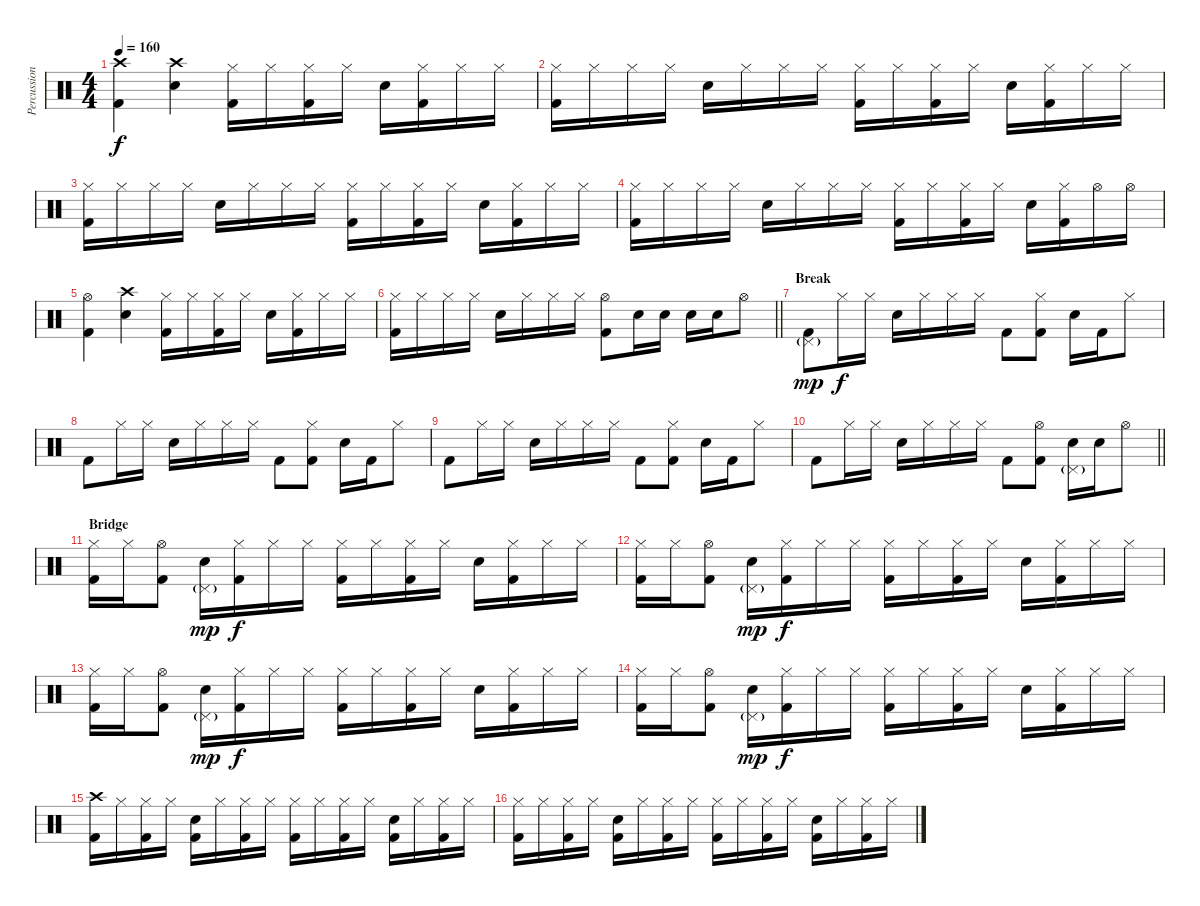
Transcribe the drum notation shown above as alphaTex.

\track ("Percussion" "Percussion") {instrument percussion}
\staff {score}
\articulation defaults
\ts (4 4)
\tempo 160
\clef neutral
\ks c
("Crash high (hit)" "Kick (hit) 2").4{dy f} ("Crash high (hit)" "Electric Snare (hit)").4 ("Hi-Hat (closed)" "Kick (hit) 2").16 "Hi-Hat (closed)".16 ("Hi-Hat (closed)" "Kick (hit) 2").16 "Hi-Hat (closed)".16 "Electric Snare (hit)".16 ("Hi-Hat (closed)" "Kick (hit) 2").16 "Hi-Hat (closed)".16 "Hi-Hat (closed)".16 |
("Hi-Hat (closed)" "Kick (hit) 2").16 "Hi-Hat (closed)".16 "Hi-Hat (closed)".16 "Hi-Hat (closed)".16 "Electric Snare (hit)".16 "Hi-Hat (closed)".16 "Hi-Hat (closed)".16 "Hi-Hat (closed)".16 ("Hi-Hat (closed)" "Kick (hit) 2").16 "Hi-Hat (closed)".16 ("Hi-Hat (closed)" "Kick (hit) 2").16 "Hi-Hat (closed)".16 "Electric Snare (hit)".16 ("Hi-Hat (closed)" "Kick (hit) 2").16 "Hi-Hat (closed)".16 "Hi-Hat (closed)".16 |
("Hi-Hat (closed)" "Kick (hit) 2").16 "Hi-Hat (closed)".16 "Hi-Hat (closed)".16 "Hi-Hat (closed)".16 "Electric Snare (hit)".16 "Hi-Hat (closed)".16 "Hi-Hat (closed)".16 "Hi-Hat (closed)".16 ("Hi-Hat (closed)" "Kick (hit) 2").16 "Hi-Hat (closed)".16 ("Hi-Hat (closed)" "Kick (hit) 2").16 "Hi-Hat (closed)".16 "Electric Snare (hit)".16 ("Hi-Hat (closed)" "Kick (hit) 2").16 "Hi-Hat (closed)".16 "Hi-Hat (closed)".16 |
("Hi-Hat (closed)" "Kick (hit) 2").16 "Hi-Hat (closed)".16 "Hi-Hat (closed)".16 "Hi-Hat (closed)".16 "Electric Snare (hit)".16 "Hi-Hat (closed)".16 "Hi-Hat (closed)".16 "Hi-Hat (closed)".16 ("Hi-Hat (closed)" "Kick (hit) 2").16 "Hi-Hat (closed)".16 ("Hi-Hat (closed)" "Kick (hit) 2").16 "Hi-Hat (closed)".16 "Electric Snare (hit)".16 ("Hi-Hat (closed)" "Kick (hit) 2").16 "Hi-Hat (open)".16 "Hi-Hat (open)".16 |
("Hi-Hat (open)" "Kick (hit) 2").4 ("Crash high (hit)" "Electric Snare (hit)").4 ("Hi-Hat (closed)" "Kick (hit) 2").16 "Hi-Hat (closed)".16 ("Hi-Hat (closed)" "Kick (hit) 2").16 "Hi-Hat (closed)".16 "Electric Snare (hit)".16 ("Hi-Hat (closed)" "Kick (hit) 2").16 "Hi-Hat (closed)".16 "Hi-Hat (closed)".16 |
\barLineRight lightlight
("Hi-Hat (closed)" "Kick (hit) 2").16 "Hi-Hat (closed)".16 "Hi-Hat (closed)".16 "Hi-Hat (closed)".16 "Electric Snare (hit)".16 "Hi-Hat (closed)".16 "Hi-Hat (closed)".16 "Hi-Hat (closed)".16 ("Hi-Hat (open)" "Kick (hit) 2").8 "Electric Snare (hit)".16 "Electric Snare (hit)".16 "Electric Snare (hit)".16 "Electric Snare (hit)".16 "Hi-Hat (open)".8 |
\section ("" "Break")
("Pedal Hi-Hat (hit)"{g} "Kick (hit) 2").8{dy mp} "Hi-Hat (closed)".16{dy f} "Hi-Hat (closed)".16 "Electric Snare (hit)".16 "Hi-Hat (closed)".16 "Hi-Hat (closed)".16 "Hi-Hat (closed)".16 "Kick (hit) 2".8 ("Hi-Hat (closed)" "Kick (hit) 2").8 "Electric Snare (hit)".16 "Kick (hit) 2".16 "Hi-Hat (closed)".8 |
"Kick (hit) 2".8 "Hi-Hat (closed)".16 "Hi-Hat (closed)".16 "Electric Snare (hit)".16 "Hi-Hat (closed)".16 "Hi-Hat (closed)".16 "Hi-Hat (closed)".16 "Kick (hit) 2".8 ("Hi-Hat (closed)" "Kick (hit) 2").8 "Electric Snare (hit)".16 "Kick (hit) 2".16 "Hi-Hat (closed)".8 |
"Kick (hit) 2".8 "Hi-Hat (closed)".16 "Hi-Hat (closed)".16 "Electric Snare (hit)".16 "Hi-Hat (closed)".16 "Hi-Hat (closed)".16 "Hi-Hat (closed)".16 "Kick (hit) 2".8 ("Hi-Hat (closed)" "Kick (hit) 2").8 "Electric Snare (hit)".16 "Kick (hit) 2".16 "Hi-Hat (closed)".8 |
\barLineRight lightlight "Kick (hit) 2".8 "Hi-Hat (closed)".16 "Hi-Hat (closed)".16 "Electric Snare (hit)".16 "Hi-Hat (closed)".16 "Hi-Hat (closed)".16 "Hi-Hat (closed)".16 "Kick (hit) 2".8
("Hi-Hat (open)" "Kick (hit) 2").8 ("Pedal Hi-Hat (hit)"{g} "Electric Snare (hit)").16 "Electric Snare (hit)".16 "Hi-Hat (open)".8 |
\section ("" "Bridge")
("Hi-Hat (closed)" "Kick (hit) 2").16 "Hi-Hat (closed)".16 ("Hi-Hat (open)" "Kick (hit) 2").8 ("Pedal Hi-Hat (hit)"{g} "Electric Snare (hit)").16{dy mp} ("Hi-Hat (closed)" "Kick (hit) 2").16{dy f} "Hi-Hat (closed)".16 "Hi-Hat (closed)".16 ("Hi-Hat (closed)" "Kick (hit) 2").16 "Hi-Hat (closed)".16 ("Hi-Hat (closed)" "Kick (hit) 2").16 "Hi-Hat (closed)".16 "Electric Snare (hit)".16 ("Hi-Hat (closed)" "Kick (hit) 2").16 "Hi-Hat (closed)".16 "Hi-Hat (closed)".16 |
("Hi-Hat (closed)" "Kick (hit) 2").16 "Hi-Hat (closed)".16 ("Hi-Hat (open)" "Kick (hit) 2").8 ("Pedal Hi-Hat (hit)"{g} "Electric Snare (hit)").16{dy mp} ("Hi-Hat (closed)" "Kick (hit) 2").16{dy f} "Hi-Hat (closed)".16 "Hi-Hat (closed)".16 ("Hi-Hat (closed)" "Kick (hit) 2").16 "Hi-Hat (closed)".16 ("Hi-Hat (closed)" "Kick (hit) 2").16 "Hi-Hat (closed)".16 "Electric Snare (hit)".16 ("Hi-Hat (closed)" "Kick (hit) 2").16 "Hi-Hat (closed)".16 "Hi-Hat (closed)".16 |
("Hi-Hat (closed)" "Kick (hit) 2").16 "Hi-Hat (closed)".16 ("Hi-Hat (open)" "Kick (hit) 2").8 ("Pedal Hi-Hat (hit)"{g} "Electric Snare (hit)").16{dy mp} ("Hi-Hat (closed)" "Kick (hit) 2").16{dy f} "Hi-Hat (closed)".16 "Hi-Hat (closed)".16 ("Hi-Hat (closed)" "Kick (hit) 2").16 "Hi-Hat (closed)".16 ("Hi-Hat (closed)" "Kick (hit) 2").16 "Hi-Hat (closed)".16 "Electric Snare (hit)".16 ("Hi-Hat (closed)" "Kick (hit) 2").16 "Hi-Hat (closed)".16 "Hi-Hat (closed)".16 |
("Hi-Hat (closed)" "Kick (hit) 2").16 "Hi-Hat (closed)".16 ("Hi-Hat (open)" "Kick (hit) 2").8 ("Pedal Hi-Hat (hit)"{g} "Electric Snare (hit)").16{dy mp} ("Hi-Hat (closed)" "Kick (hit) 2").16{dy f} "Hi-Hat (closed)".16 "Hi-Hat (closed)".16 ("Hi-Hat (closed)" "Kick (hit) 2").16 "Hi-Hat (closed)".16 ("Hi-Hat (closed)" "Kick (hit) 2").16 "Hi-Hat (closed)".16 "Electric Snare (hit)".16 ("Hi-Hat (closed)" "Kick (hit) 2").16 "Hi-Hat (closed)".16 "Hi-Hat (closed)".16 |
("Crash high (hit)" "Kick (hit) 2").16 "Hi-Hat (closed)".16 ("Hi-Hat (closed)" "Kick (hit) 2").16 "Hi-Hat (closed)".16 ("Electric Snare (hit)" "Kick (hit) 2").16 "Hi-Hat (closed)".16 ("Hi-Hat (closed)" "Kick (hit) 2").16 "Hi-Hat (closed)".16 ("Hi-Hat (closed)" "Kick (hit) 2").16 "Hi-Hat (closed)".16 ("Hi-Hat (closed)" "Kick (hit) 2").16 "Hi-Hat (closed)".16 ("Electric Snare (hit)" "Kick (hit) 2").16 "Hi-Hat (closed)".16 ("Hi-Hat (closed)" "Kick (hit) 2").16 "Hi-Hat (closed)".16 |
("Hi-Hat (closed)" "Kick (hit) 2").16 "Hi-Hat (closed)".16 ("Hi-Hat (closed)" "Kick (hit) 2").16 "Hi-Hat (closed)".16 ("Electric Snare (hit)" "Kick (hit) 2").16 "Hi-Hat (closed)".16 ("Hi-Hat (closed)" "Kick (hit) 2").16 "Hi-Hat (closed)".16 ("Hi-Hat (closed)" "Kick (hit) 2").16 "Hi-Hat (closed)".16 ("Hi-Hat (closed)" "Kick (hit) 2").16 "Hi-Hat (closed)".16 ("Electric Snare (hit)" "Kick (hit) 2").16 "Hi-Hat (closed)".16 ("Hi-Hat (closed)" "Kick (hit) 2").16 "Hi-Hat (closed)".16
